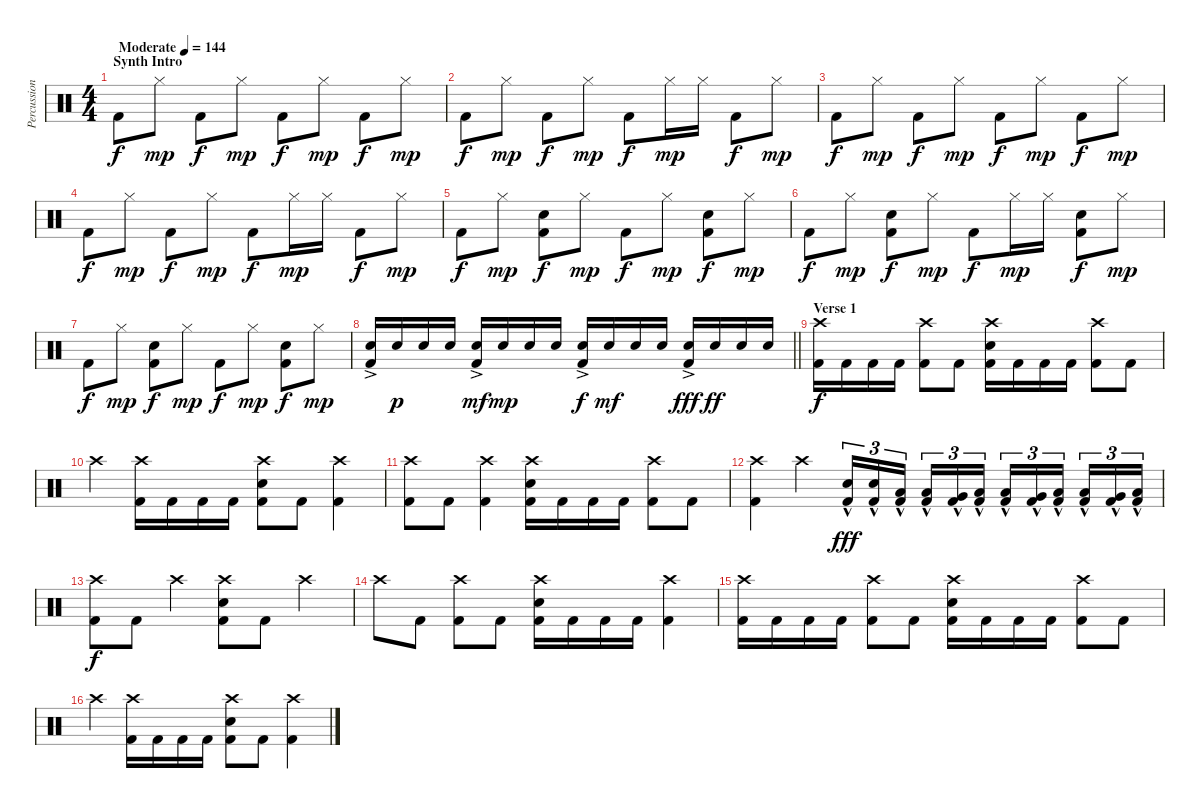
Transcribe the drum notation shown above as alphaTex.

\track ("Percussion" "Percussion") {instrument percussion}
\staff {score}
\articulation defaults
\ts (4 4)
\section ("" "Synth Intro")
\tempo (144 "Moderate")
\clef neutral
\ks c "Kick (hit) 2".8{dy f} "Hi-Hat (closed)".8{dy mp} "Kick (hit) 2".8{dy f} "Hi-Hat (closed)".8{dy mp} "Kick (hit) 2".8{dy f} "Hi-Hat (closed)".8{dy mp} "Kick (hit) 2".8{dy f} "Hi-Hat (closed)".8{dy mp}
|
"Kick (hit) 2".8{dy f} "Hi-Hat (closed)".8{dy mp} "Kick (hit) 2".8{dy f} "Hi-Hat (closed)".8{dy mp} "Kick (hit) 2".8{dy f} "Hi-Hat (closed)".16{dy mp} "Hi-Hat (closed)".16 "Kick (hit) 2".8{dy f} "Hi-Hat (closed)".8{dy mp} |
"Kick (hit) 2".8{dy f} "Hi-Hat (closed)".8{dy mp} "Kick (hit) 2".8{dy f} "Hi-Hat (closed)".8{dy mp} "Kick (hit) 2".8{dy f} "Hi-Hat (closed)".8{dy mp} "Kick (hit) 2".8{dy f} "Hi-Hat (closed)".8{dy mp} |
"Kick (hit) 2".8{dy f} "Hi-Hat (closed)".8{dy mp} "Kick (hit) 2".8{dy f} "Hi-Hat (closed)".8{dy mp} "Kick (hit) 2".8{dy f} "Hi-Hat (closed)".16{dy mp} "Hi-Hat (closed)".16 "Kick (hit) 2".8{dy f} "Hi-Hat (closed)".8{dy mp} |
"Kick (hit) 2".8{dy f} "Hi-Hat (closed)".8{dy mp} ("Snare (hit) 2" "Kick (hit) 2").8{dy f} "Hi-Hat (closed)".8{dy mp} "Kick (hit) 2".8{dy f} "Hi-Hat (closed)".8{dy mp} ("Snare (hit) 2" "Kick (hit) 2").8{dy f} "Hi-Hat (closed)".8{dy mp} |
"Kick (hit) 2".8{dy f} "Hi-Hat (closed)".8{dy mp} ("Snare (hit) 2" "Kick (hit) 2").8{dy f} "Hi-Hat (closed)".8{dy mp} "Kick (hit) 2".8{dy f} "Hi-Hat (closed)".16{dy mp} "Hi-Hat (closed)".16 ("Snare (hit) 2" "Kick (hit) 2").8{dy f} "Hi-Hat (closed)".8{dy mp} |
"Kick (hit) 2".8{dy f} "Hi-Hat (closed)".8{dy mp} ("Snare (hit) 2" "Kick (hit) 2").8{dy f} "Hi-Hat (closed)".8{dy mp} "Kick (hit) 2".8{dy f} "Hi-Hat (closed)".8{dy mp} ("Snare (hit) 2" "Kick (hit) 2").8{dy f} "Hi-Hat (closed)".8{dy mp} |
\barLineRight lightlight
("Snare (hit) 2"{ac} "Kick (hit) 2").16 "Snare (hit) 2".16{dy p} "Snare (hit) 2".16 "Snare (hit) 2".16 ("Snare (hit) 2"{ac} "Kick (hit) 2").16{dy mf} "Snare (hit) 2".16{dy mp} "Snare (hit) 2".16 "Snare (hit) 2".16 ("Snare (hit) 2"{ac} "Kick (hit) 2").16{dy f} "Snare (hit) 2".16{dy mf} "Snare (hit) 2".16 "Snare (hit) 2".16 ("Snare (hit) 2"{ac} "Kick (hit) 2").16{dy fff} "Snare (hit) 2".16{dy ff} "Snare (hit) 2".16 "Snare (hit) 2".16 |
\section ("" "Verse 1")
("Crash high (hit)" "Kick (hit) 2").16{dy f} "Kick (hit) 2".16 "Kick (hit) 2".16 "Kick (hit) 2".16 ("Crash high (hit)" "Kick (hit) 2").8 "Kick (hit) 2".8 ("Crash high (hit)" "Snare (hit) 2" "Kick (hit) 2").16 "Kick (hit) 2".16 "Kick (hit) 2".16 "Kick (hit) 2".16 ("Crash high (hit)" "Kick (hit) 2").8 "Kick (hit) 2".8 |
"Crash high (hit)".4 ("Crash high (hit)" "Kick (hit) 2").16 "Kick (hit) 2".16 "Kick (hit) 2".16 "Kick (hit) 2".16 ("Crash high (hit)" "Snare (hit) 2" "Kick (hit) 2").8 "Kick (hit) 2".8 ("Crash high (hit)" "Kick (hit) 2").4 |
("Crash high (hit)" "Kick (hit) 2").8 "Kick (hit) 2".8 ("Crash high (hit)" "Kick (hit) 2").4 ("Crash high (hit)" "Snare (hit) 2" "Kick (hit) 2").16 "Kick (hit) 2".16 "Kick (hit) 2".16 "Kick (hit) 2".16 ("Crash high (hit)" "Kick (hit) 2").8 "Kick (hit) 2".8 |
("Crash high (hit)" "Kick (hit) 2").4 "Crash high (hit)".4 ("Snare (hit) 2"{hac} "Kick (hit) 2").16{tu (3 2) dy fff} ("Snare (hit) 2"{hac} "Kick (hit) 2").16{tu (3 2)} ("Low Floor Tom (hit)"{hac} "Kick (hit) 2").16{tu (3 2) beam splitsecondary} ("Low Tom (hit)"{hac} "Kick (hit) 2").16{tu (3 2)} ("Very Low Tom (hit)"{hac} "Kick (hit) 2").16{tu (3 2)} ("Low Floor Tom (hit)"{hac} "Kick (hit) 2").16{tu (3 2)} ("Low Tom (hit)"{hac} "Kick (hit) 2").16{tu (3 2)} ("Very Low Tom (hit)"{hac} "Kick (hit) 2").16{tu (3 2)} ("Low Floor Tom (hit)"{hac} "Kick (hit) 2").16{tu (3 2) beam splitsecondary} ("Low Tom (hit)"{hac} "Kick (hit) 2").16{tu (3 2)} ("Very Low Tom (hit)"{hac} "Kick (hit) 2").16{tu (3 2)} ("Low Floor Tom (hit)"{hac} "Kick (hit) 2").16{tu (3 2)} |
("Crash high (hit)" "Kick (hit) 2").8{dy f} "Kick (hit) 2".8 "Crash high (hit)".4 ("Crash high (hit)" "Snare (hit) 2" "Kick (hit) 2").8 "Kick (hit) 2".8 "Crash high (hit)".4 |
"Crash high (hit)".8 "Kick (hit) 2".8 ("Crash high (hit)" "Kick (hit) 2").8 "Kick (hit) 2".8 ("Crash high (hit)" "Snare (hit) 2" "Kick (hit) 2").16 "Kick (hit) 2".16 "Kick (hit) 2".16 "Kick (hit) 2".16 ("Crash high (hit)" "Kick (hit) 2").4 |
("Crash high (hit)" "Kick (hit) 2").16 "Kick (hit) 2".16 "Kick (hit) 2".16 "Kick (hit) 2".16 ("Crash high (hit)" "Kick (hit) 2").8 "Kick (hit) 2".8 ("Crash high (hit)" "Snare (hit) 2" "Kick (hit) 2").16 "Kick (hit) 2".16 "Kick (hit) 2".16 "Kick (hit) 2".16 ("Crash high (hit)" "Kick (hit) 2").8 "Kick (hit) 2".8 |
"Crash high (hit)".4 ("Crash high (hit)" "Kick (hit) 2").16 "Kick (hit) 2".16 "Kick (hit) 2".16 "Kick (hit) 2".16 ("Crash high (hit)" "Snare (hit) 2" "Kick (hit) 2").8 "Kick (hit) 2".8 ("Crash high (hit)" "Kick (hit) 2").4
